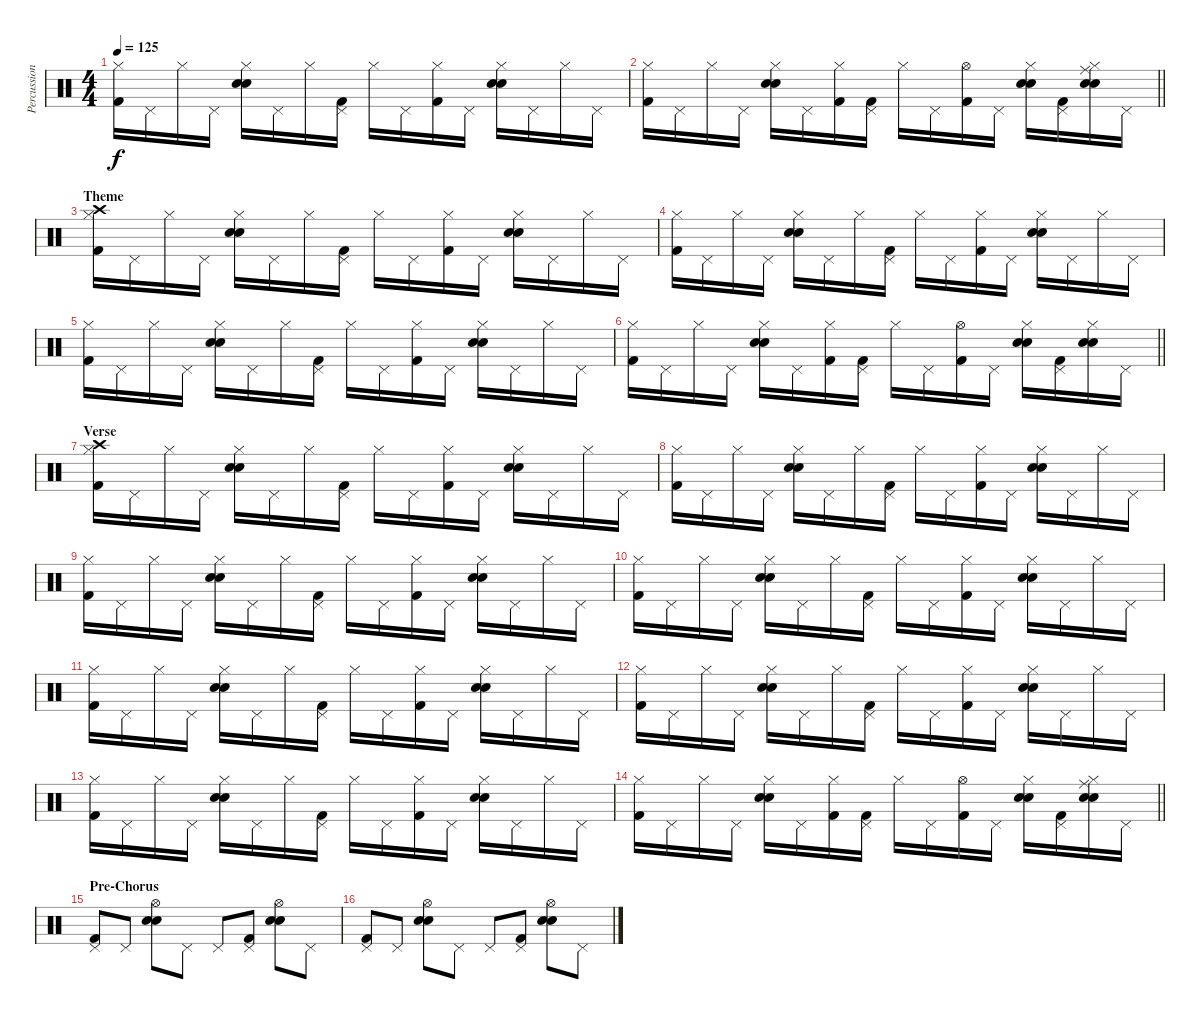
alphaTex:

\track ("Percussion" "Percussion") {instrument percussion}
\staff {score}
\articulation defaults
\ts (4 4)
\tempo 125
\clef neutral
\ks c
("Hi-Hat (closed)" "Kick (hit) 2").16{dy f} "Pedal Hi-Hat (hit)".16 "Hi-Hat (closed)".16 "Pedal Hi-Hat (hit)".16 ("Electric Snare (hit)" "Electric Snare (hit)" "Hi-Hat (closed)").16 "Pedal Hi-Hat (hit)".16 "Hi-Hat (closed)".16 ("Pedal Hi-Hat (hit)" "Kick (hit) 2").16 "Hi-Hat (closed)".16 "Pedal Hi-Hat (hit)".16 ("Hi-Hat (closed)" "Kick (hit) 2").16 "Pedal Hi-Hat (hit)".16 ("Electric Snare (hit)" "Electric Snare (hit)" "Hi-Hat (closed)").16 "Pedal Hi-Hat (hit)".16 "Hi-Hat (closed)".16 "Pedal Hi-Hat (hit)".16 |
\barLineRight lightlight
("Hi-Hat (closed)" "Kick (hit) 2").16 "Pedal Hi-Hat (hit)".16 "Hi-Hat (closed)".16 "Pedal Hi-Hat (hit)".16 ("Electric Snare (hit)" "Electric Snare (hit)" "Hi-Hat (closed)").16 "Pedal Hi-Hat (hit)".16 ("Hi-Hat (closed)" "Kick (hit) 2").16 ("Pedal Hi-Hat (hit)" "Kick (hit) 2").16 "Hi-Hat (closed)".16 "Pedal Hi-Hat (hit)".16 ("Hi-Hat (open)" "Kick (hit) 2").16 "Pedal Hi-Hat (hit)".16 ("Electric Snare (hit)" "Electric Snare (hit)" "Hi-Hat (closed)").16 ("Pedal Hi-Hat (hit)" "Kick (hit) 2").16 ("Ride (middle)" "Electric Snare (hit)" "Electric Snare (hit)" "Hi-Hat (closed)").16 "Pedal Hi-Hat (hit)".16 |
\section ("" "Theme")
("Crash high (hit)" "Hi-Hat (closed)" "Kick (hit) 2").16 "Pedal Hi-Hat (hit)".16 "Hi-Hat (closed)".16 "Pedal Hi-Hat (hit)".16 ("Electric Snare (hit)" "Electric Snare (hit)" "Hi-Hat (closed)").16 "Pedal Hi-Hat (hit)".16 "Hi-Hat (closed)".16 ("Pedal Hi-Hat (hit)" "Kick (hit) 2").16 "Hi-Hat (closed)".16 "Pedal Hi-Hat (hit)".16 ("Hi-Hat (closed)" "Kick (hit) 2").16 "Pedal Hi-Hat (hit)".16 ("Electric Snare (hit)" "Electric Snare (hit)" "Hi-Hat (closed)").16 "Pedal Hi-Hat (hit)".16 "Hi-Hat (closed)".16 "Pedal Hi-Hat (hit)".16 |
("Hi-Hat (closed)" "Kick (hit) 2").16 "Pedal Hi-Hat (hit)".16 "Hi-Hat (closed)".16 "Pedal Hi-Hat (hit)".16 ("Electric Snare (hit)" "Electric Snare (hit)" "Hi-Hat (closed)").16 "Pedal Hi-Hat (hit)".16 "Hi-Hat (closed)".16 ("Pedal Hi-Hat (hit)" "Kick (hit) 2").16 "Hi-Hat (closed)".16 "Pedal Hi-Hat (hit)".16 ("Hi-Hat (closed)" "Kick (hit) 2").16 "Pedal Hi-Hat (hit)".16 ("Electric Snare (hit)" "Electric Snare (hit)" "Hi-Hat (closed)").16 "Pedal Hi-Hat (hit)".16 "Hi-Hat (closed)".16 "Pedal Hi-Hat (hit)".16 |
("Hi-Hat (closed)" "Kick (hit) 2").16 "Pedal Hi-Hat (hit)".16 "Hi-Hat (closed)".16 "Pedal Hi-Hat (hit)".16 ("Electric Snare (hit)" "Electric Snare (hit)" "Hi-Hat (closed)").16 "Pedal Hi-Hat (hit)".16 "Hi-Hat (closed)".16 ("Pedal Hi-Hat (hit)" "Kick (hit) 2").16 "Hi-Hat (closed)".16 "Pedal Hi-Hat (hit)".16 ("Hi-Hat (closed)" "Kick (hit) 2").16 "Pedal Hi-Hat (hit)".16 ("Electric Snare (hit)" "Electric Snare (hit)" "Hi-Hat (closed)").16 "Pedal Hi-Hat (hit)".16 "Hi-Hat (closed)".16 "Pedal Hi-Hat (hit)".16 |
\barLineRight lightlight
("Hi-Hat (closed)" "Kick (hit) 2").16 "Pedal Hi-Hat (hit)".16 "Hi-Hat (closed)".16 "Pedal Hi-Hat (hit)".16 ("Electric Snare (hit)" "Electric Snare (hit)" "Hi-Hat (closed)").16 "Pedal Hi-Hat (hit)".16 ("Hi-Hat (closed)" "Kick (hit) 2").16 ("Pedal Hi-Hat (hit)" "Kick (hit) 2").16 "Hi-Hat (closed)".16 "Pedal Hi-Hat (hit)".16 ("Hi-Hat (open)" "Kick (hit) 2").16 "Pedal Hi-Hat (hit)".16 ("Electric Snare (hit)" "Electric Snare (hit)" "Hi-Hat (closed)").16 ("Pedal Hi-Hat (hit)" "Kick (hit) 2").16 ("Electric Snare (hit)" "Electric Snare (hit)" "Hi-Hat (closed)").16 "Pedal Hi-Hat (hit)".16 |
\section ("" "Verse")
("Crash high (hit)" "Hi-Hat (closed)" "Kick (hit) 2").16 "Pedal Hi-Hat (hit)".16 "Hi-Hat (closed)".16 "Pedal Hi-Hat (hit)".16 ("Electric Snare (hit)" "Electric Snare (hit)" "Hi-Hat (closed)").16 "Pedal Hi-Hat (hit)".16 "Hi-Hat (closed)".16 ("Pedal Hi-Hat (hit)" "Kick (hit) 2").16 "Hi-Hat (closed)".16 "Pedal Hi-Hat (hit)".16 ("Hi-Hat (closed)" "Kick (hit) 2").16 "Pedal Hi-Hat (hit)".16 ("Electric Snare (hit)" "Electric Snare (hit)" "Hi-Hat (closed)").16 "Pedal Hi-Hat (hit)".16 "Hi-Hat (closed)".16 "Pedal Hi-Hat (hit)".16 |
("Hi-Hat (closed)" "Kick (hit) 2").16 "Pedal Hi-Hat (hit)".16 "Hi-Hat (closed)".16 "Pedal Hi-Hat (hit)".16 ("Electric Snare (hit)" "Electric Snare (hit)" "Hi-Hat (closed)").16 "Pedal Hi-Hat (hit)".16 "Hi-Hat (closed)".16 ("Pedal Hi-Hat (hit)" "Kick (hit) 2").16 "Hi-Hat (closed)".16 "Pedal Hi-Hat (hit)".16 ("Hi-Hat (closed)" "Kick (hit) 2").16 "Pedal Hi-Hat (hit)".16 ("Electric Snare (hit)" "Electric Snare (hit)" "Hi-Hat (closed)").16 "Pedal Hi-Hat (hit)".16 "Hi-Hat (closed)".16 "Pedal Hi-Hat (hit)".16 |
("Hi-Hat (closed)" "Kick (hit) 2").16 "Pedal Hi-Hat (hit)".16 "Hi-Hat (closed)".16 "Pedal Hi-Hat (hit)".16 ("Electric Snare (hit)" "Electric Snare (hit)" "Hi-Hat (closed)").16 "Pedal Hi-Hat (hit)".16 "Hi-Hat (closed)".16 ("Pedal Hi-Hat (hit)" "Kick (hit) 2").16 "Hi-Hat (closed)".16 "Pedal Hi-Hat (hit)".16 ("Hi-Hat (closed)" "Kick (hit) 2").16 "Pedal Hi-Hat (hit)".16 ("Electric Snare (hit)" "Electric Snare (hit)" "Hi-Hat (closed)").16 "Pedal Hi-Hat (hit)".16 "Hi-Hat (closed)".16 "Pedal Hi-Hat (hit)".16 |
("Hi-Hat (closed)" "Kick (hit) 2").16 "Pedal Hi-Hat (hit)".16 "Hi-Hat (closed)".16 "Pedal Hi-Hat (hit)".16 ("Electric Snare (hit)" "Electric Snare (hit)" "Hi-Hat (closed)").16 "Pedal Hi-Hat (hit)".16 "Hi-Hat (closed)".16 ("Pedal Hi-Hat (hit)" "Kick (hit) 2").16 "Hi-Hat (closed)".16 "Pedal Hi-Hat (hit)".16 ("Hi-Hat (closed)" "Kick (hit) 2").16 "Pedal Hi-Hat (hit)".16 ("Electric Snare (hit)" "Electric Snare (hit)" "Hi-Hat (closed)").16 "Pedal Hi-Hat (hit)".16 "Hi-Hat (closed)".16 "Pedal Hi-Hat (hit)".16 |
("Hi-Hat (closed)" "Kick (hit) 2").16 "Pedal Hi-Hat (hit)".16 "Hi-Hat (closed)".16 "Pedal Hi-Hat (hit)".16 ("Electric Snare (hit)" "Electric Snare (hit)" "Hi-Hat (closed)").16 "Pedal Hi-Hat (hit)".16 "Hi-Hat (closed)".16 ("Pedal Hi-Hat (hit)" "Kick (hit) 2").16 "Hi-Hat (closed)".16 "Pedal Hi-Hat (hit)".16 ("Hi-Hat (closed)" "Kick (hit) 2").16 "Pedal Hi-Hat (hit)".16 ("Electric Snare (hit)" "Electric Snare (hit)" "Hi-Hat (closed)").16 "Pedal Hi-Hat (hit)".16 "Hi-Hat (closed)".16 "Pedal Hi-Hat (hit)".16 |
("Hi-Hat (closed)" "Kick (hit) 2").16 "Pedal Hi-Hat (hit)".16 "Hi-Hat (closed)".16 "Pedal Hi-Hat (hit)".16 ("Electric Snare (hit)" "Electric Snare (hit)" "Hi-Hat (closed)").16 "Pedal Hi-Hat (hit)".16 "Hi-Hat (closed)".16 ("Pedal Hi-Hat (hit)" "Kick (hit) 2").16 "Hi-Hat (closed)".16 "Pedal Hi-Hat (hit)".16 ("Hi-Hat (closed)" "Kick (hit) 2").16 "Pedal Hi-Hat (hit)".16 ("Electric Snare (hit)" "Electric Snare (hit)" "Hi-Hat (closed)").16 "Pedal Hi-Hat (hit)".16 "Hi-Hat (closed)".16 "Pedal Hi-Hat (hit)".16 |
("Hi-Hat (closed)" "Kick (hit) 2").16 "Pedal Hi-Hat (hit)".16 "Hi-Hat (closed)".16 "Pedal Hi-Hat (hit)".16 ("Electric Snare (hit)" "Electric Snare (hit)" "Hi-Hat (closed)").16 "Pedal Hi-Hat (hit)".16 "Hi-Hat (closed)".16 ("Pedal Hi-Hat (hit)" "Kick (hit) 2").16 "Hi-Hat (closed)".16 "Pedal Hi-Hat (hit)".16 ("Hi-Hat (closed)" "Kick (hit) 2").16 "Pedal Hi-Hat (hit)".16 ("Electric Snare (hit)" "Electric Snare (hit)" "Hi-Hat (closed)").16 "Pedal Hi-Hat (hit)".16 "Hi-Hat (closed)".16 "Pedal Hi-Hat (hit)".16 |
\barLineRight lightlight
("Hi-Hat (closed)" "Kick (hit) 2").16 "Pedal Hi-Hat (hit)".16 "Hi-Hat (closed)".16 "Pedal Hi-Hat (hit)".16 ("Electric Snare (hit)" "Electric Snare (hit)" "Hi-Hat (closed)").16 "Pedal Hi-Hat (hit)".16 ("Hi-Hat (closed)" "Kick (hit) 2").16 ("Pedal Hi-Hat (hit)" "Kick (hit) 2").16 "Hi-Hat (closed)".16 "Pedal Hi-Hat (hit)".16 ("Hi-Hat (open)" "Kick (hit) 2").16 "Pedal Hi-Hat (hit)".16 ("Electric Snare (hit)" "Electric Snare (hit)" "Hi-Hat (closed)").16 ("Pedal Hi-Hat (hit)" "Kick (hit) 2").16 ("Ride (middle)" "Electric Snare (hit)" "Electric Snare (hit)" "Hi-Hat (closed)").16 "Pedal Hi-Hat (hit)".16 |
\section ("" "Pre-Chorus")
("Pedal Hi-Hat (hit)" "Kick (hit) 2").8 "Pedal Hi-Hat (hit)".8 ("Electric Snare (hit)" "Electric Snare (hit)" "Hi-Hat (open)").8 "Pedal Hi-Hat (hit)".8 "Pedal Hi-Hat (hit)".8 ("Pedal Hi-Hat (hit)" "Kick (hit) 2").8 ("Electric Snare (hit)" "Electric Snare (hit)" "Hi-Hat (open)").8 "Pedal Hi-Hat (hit)".8 |
("Pedal Hi-Hat (hit)" "Kick (hit) 2").8 "Pedal Hi-Hat (hit)".8 ("Electric Snare (hit)" "Electric Snare (hit)" "Hi-Hat (open)").8 "Pedal Hi-Hat (hit)".8 "Pedal Hi-Hat (hit)".8 ("Pedal Hi-Hat (hit)" "Kick (hit) 2").8 ("Electric Snare (hit)" "Electric Snare (hit)" "Hi-Hat (open)").8 "Pedal Hi-Hat (hit)".8
